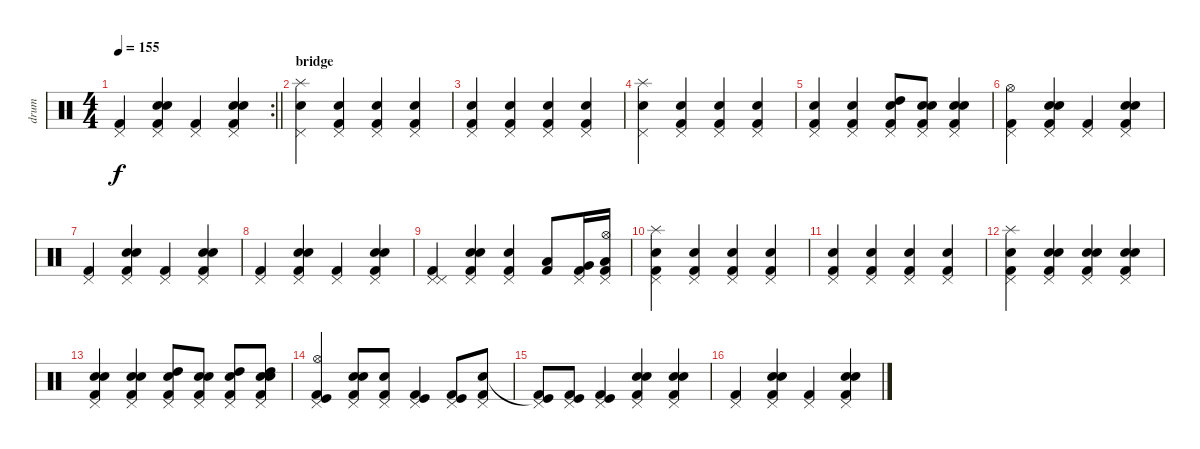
\track ("drum" "drum") {instrument percussion}
\staff {score}
\articulation defaults
\rc 2
\ts (4 4)
\tempo 155
\clef neutral
\barLineRight lightlight
\ks c
("Pedal Hi-Hat (hit)" "Kick (hit) 2").4{dy f} ("Pedal Hi-Hat (hit)" "Electric Snare (hit)" "Snare (hit) 2" "Kick (hit) 2").4 ("Pedal Hi-Hat (hit)" "Kick (hit) 2").4 ("Pedal Hi-Hat (hit)" "Electric Snare (hit)" "Snare (hit) 2" "Kick (hit) 2").4 |
\section ("" "bridge")
("Splash (hit)" "Snare (hit) 2" "Pedal Hi-Hat (hit)").4 ("Electric Snare (hit)" "Pedal Hi-Hat (hit)" "Kick (hit) 2").4 ("Electric Snare (hit)" "Pedal Hi-Hat (hit)" "Kick (hit) 2").4 ("Electric Snare (hit)" "Pedal Hi-Hat (hit)" "Kick (hit) 2").4 |
("Electric Snare (hit)" "Pedal Hi-Hat (hit)" "Kick (hit) 2").4 ("Electric Snare (hit)" "Pedal Hi-Hat (hit)" "Kick (hit) 2").4 ("Electric Snare (hit)" "Pedal Hi-Hat (hit)" "Kick (hit) 2").4 ("Electric Snare (hit)" "Pedal Hi-Hat (hit)" "Kick (hit) 2").4 |
("Splash (hit)" "Snare (hit) 2" "Pedal Hi-Hat (hit)").4 ("Electric Snare (hit)" "Pedal Hi-Hat (hit)" "Kick (hit) 2").4 ("Electric Snare (hit)" "Pedal Hi-Hat (hit)" "Kick (hit) 2").4 ("Electric Snare (hit)" "Pedal Hi-Hat (hit)" "Kick (hit) 2").4 |
("Electric Snare (hit)" "Pedal Hi-Hat (hit)" "Kick (hit) 2").4 ("Electric Snare (hit)" "Pedal Hi-Hat (hit)" "Kick (hit) 2").4 ("Electric Snare (hit)" "Pedal Hi-Hat (hit)" "High Tom (hit)" "Kick (hit) 2").8 ("Snare (hit) 2" "Electric Snare (hit)" "Pedal Hi-Hat (hit)" "Kick (hit) 2").8 ("Snare (hit) 2" "Electric Snare (hit)" "Pedal Hi-Hat (hit)" "Kick (hit) 2").4 |
("Pedal Hi-Hat (hit)" "Hi-Hat (open)" "Kick (hit) 2").4 ("Pedal Hi-Hat (hit)" "Electric Snare (hit)" "Snare (hit) 2" "Kick (hit) 2").4 ("Pedal Hi-Hat (hit)" "Kick (hit) 2").4 ("Pedal Hi-Hat (hit)" "Electric Snare (hit)" "Snare (hit) 2" "Kick (hit) 2").4 |
("Pedal Hi-Hat (hit)" "Kick (hit) 2").4 ("Pedal Hi-Hat (hit)" "Electric Snare (hit)" "Snare (hit) 2" "Kick (hit) 2").4 ("Pedal Hi-Hat (hit)" "Kick (hit) 2").4 ("Pedal Hi-Hat (hit)" "Electric Snare (hit)" "Snare (hit) 2" "Kick (hit) 2").4 |
("Pedal Hi-Hat (hit)" "Kick (hit) 2").4 ("Pedal Hi-Hat (hit)" "Electric Snare (hit)" "Snare (hit) 2" "Kick (hit) 2").4 ("Pedal Hi-Hat (hit)" "Kick (hit) 2").4 ("Pedal Hi-Hat (hit)" "Electric Snare (hit)" "Snare (hit) 2" "Kick (hit) 2").4 |
("Pedal Hi-Hat (hit)" "Pedal Hi-Hat (hit)" "Kick (hit) 2").4 ("Pedal Hi-Hat (hit)" "Electric Snare (hit)" "Snare (hit) 2" "Kick (hit) 2").4 ("Electric Snare (hit)" "Pedal Hi-Hat (hit)" "Kick (hit) 2").4 ("Low Floor Tom (hit)" "Kick (hit) 2").8 ("Pedal Hi-Hat (hit)" "Very Low Tom (hit)" "Kick (hit) 2").16 ("Pedal Hi-Hat (hit)" "Hi-Hat (open)" "Low Tom (hit)" "Kick (hit) 2").16 |
("Splash (hit)" "Snare (hit) 2" "Pedal Hi-Hat (hit)" "Kick (hit) 2").4 ("Electric Snare (hit)" "Pedal Hi-Hat (hit)" "Kick (hit) 2").4 ("Electric Snare (hit)" "Pedal Hi-Hat (hit)" "Kick (hit) 2").4 ("Electric Snare (hit)" "Pedal Hi-Hat (hit)" "Kick (hit) 2").4 |
("Electric Snare (hit)" "Pedal Hi-Hat (hit)" "Kick (hit) 2").4 ("Electric Snare (hit)" "Pedal Hi-Hat (hit)" "Kick (hit) 2").4 ("Electric Snare (hit)" "Pedal Hi-Hat (hit)" "Kick (hit) 2").4 ("Electric Snare (hit)" "Pedal Hi-Hat (hit)" "Kick (hit) 2").4 |
("Splash (hit)" "Snare (hit) 2" "Pedal Hi-Hat (hit)" "Kick (hit) 2").4 ("Electric Snare (hit)" "Pedal Hi-Hat (hit)" "Snare (hit) 2" "Kick (hit) 2").4 ("Electric Snare (hit)" "Pedal Hi-Hat (hit)" "Snare (hit) 2" "Kick (hit) 2").4 ("Electric Snare (hit)" "Pedal Hi-Hat (hit)" "Snare (hit) 2" "Kick (hit) 2").4 |
("Electric Snare (hit)" "Pedal Hi-Hat (hit)" "Snare (hit) 2" "Kick (hit) 2").4 ("Electric Snare (hit)" "Pedal Hi-Hat (hit)" "Snare (hit) 2" "Kick (hit) 2").4 ("Electric Snare (hit)" "Pedal Hi-Hat (hit)" "High Tom (hit)" "Kick (hit) 2").8 ("Snare (hit) 2" "Electric Snare (hit)" "Pedal Hi-Hat (hit)" "Kick (hit) 2").8 ("Electric Snare (hit)" "Pedal Hi-Hat (hit)" "High Tom (hit)" "Kick (hit) 2").8 ("Electric Snare (hit)" "Snare (hit) 2" "Pedal Hi-Hat (hit)" "High Tom (hit)" "Kick (hit) 2").8 |
("Pedal Hi-Hat (hit)" "Hi-Hat (open)" "Kick (hit)" "Kick (hit) 2").4 ("Pedal Hi-Hat (hit)" "Electric Snare (hit)" "Snare (hit) 2" "Kick (hit) 2").8 ("Pedal Hi-Hat (hit)" "Snare (hit) 2" "Kick (hit) 2").8 ("Pedal Hi-Hat (hit)" "Kick (hit)" "Kick (hit) 2").4 ("Pedal Hi-Hat (hit)" "Kick (hit)" "Kick (hit) 2").8 ("Pedal Hi-Hat (hit)" "Snare (hit) 2" "Kick (hit) 2").8 |
("Pedal Hi-Hat (hit)" "Kick (hit)"{t} "Kick (hit) 2").8 ("Pedal Hi-Hat (hit)" "Kick (hit)" "Kick (hit) 2").8 ("Pedal Hi-Hat (hit)" "Kick (hit)" "Kick (hit) 2").4 ("Pedal Hi-Hat (hit)" "Electric Snare (hit)" "Snare (hit) 2" "Kick (hit) 2").4 ("Pedal Hi-Hat (hit)" "Electric Snare (hit)" "Snare (hit) 2" "Kick (hit) 2").4 |
("Pedal Hi-Hat (hit)" "Kick (hit) 2").4 ("Pedal Hi-Hat (hit)" "Electric Snare (hit)" "Snare (hit) 2" "Kick (hit) 2").4 ("Pedal Hi-Hat (hit)" "Kick (hit) 2").4 ("Pedal Hi-Hat (hit)" "Electric Snare (hit)" "Snare (hit) 2" "Kick (hit) 2").4
